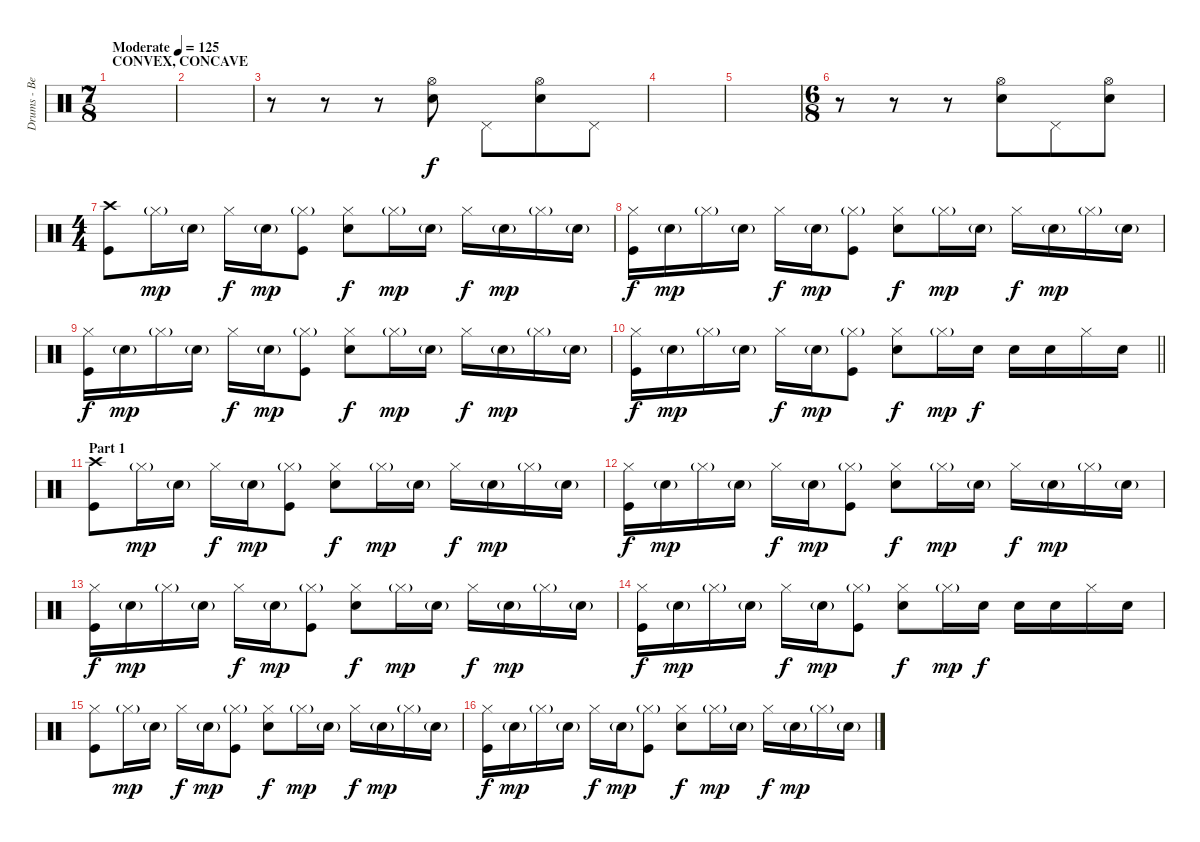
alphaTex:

\track ("Drums - Ben Johnston" "Drums - Be") {instrument percussion}
\staff {score}
\articulation defaults
\ts (7 8)
\section ("" "CONVEX, CONCAVE")
\tempo (125 "Moderate")
\clef neutral
\ks c
|
|
r.8 r.8 r.8 ("Hi-Hat (open)" "Snare (hit) 2").8 "Pedal Hi-Hat (hit)".8 ("Hi-Hat (open)" "Snare (hit) 2").8 "Pedal Hi-Hat (hit)".8 |
|
|
\ts (6 8)
r.8 r.8 r.8 ("Hi-Hat (open)" "Snare (hit) 2").8 "Pedal Hi-Hat (hit)".8 ("Hi-Hat (open)" "Snare (hit) 2").8 |
\ts (4 4)
("Crash high (hit)" "Kick (hit)").8 "Hi-Hat (closed)"{g}.16{dy mp} "Snare (hit) 2"{g}.16 "Hi-Hat (closed)".16{dy f} "Snare (hit) 2"{g}.16{dy mp} ("Hi-Hat (closed)"{g} "Kick (hit)").8 ("Hi-Hat (closed)" "Snare (hit) 2").8{dy f} "Hi-Hat (closed)"{g}.16{dy mp} "Snare (hit) 2"{g}.16 "Hi-Hat (closed)".16{dy f} "Snare (hit) 2"{g}.16{dy mp} "Hi-Hat (closed)"{g}.16 "Snare (hit) 2"{g}.16 |
("Hi-Hat (closed)" "Kick (hit)").16{dy f} "Snare (hit) 2"{g}.16{dy mp} "Hi-Hat (closed)"{g}.16 "Snare (hit) 2"{g}.16 "Hi-Hat (closed)".16{dy f} "Snare (hit) 2"{g}.16{dy mp} ("Hi-Hat (closed)"{g} "Kick (hit)").8 ("Hi-Hat (closed)" "Snare (hit) 2").8{dy f} "Hi-Hat (closed)"{g}.16{dy mp} "Snare (hit) 2"{g}.16 "Hi-Hat (closed)".16{dy f} "Snare (hit) 2"{g}.16{dy mp} "Hi-Hat (closed)"{g}.16 "Snare (hit) 2"{g}.16 |
("Hi-Hat (closed)" "Kick (hit)").16{dy f} "Snare (hit) 2"{g}.16{dy mp} "Hi-Hat (closed)"{g}.16 "Snare (hit) 2"{g}.16 "Hi-Hat (closed)".16{dy f} "Snare (hit) 2"{g}.16{dy mp} ("Hi-Hat (closed)"{g} "Kick (hit)").8 ("Hi-Hat (closed)" "Snare (hit) 2").8{dy f} "Hi-Hat (closed)"{g}.16{dy mp} "Snare (hit) 2"{g}.16 "Hi-Hat (closed)".16{dy f} "Snare (hit) 2"{g}.16{dy mp} "Hi-Hat (closed)"{g}.16 "Snare (hit) 2"{g}.16 |
\barLineRight lightlight
("Hi-Hat (closed)" "Kick (hit)").16{dy f} "Snare (hit) 2"{g}.16{dy mp} "Hi-Hat (closed)"{g}.16 "Snare (hit) 2"{g}.16 "Hi-Hat (closed)".16{dy f} "Snare (hit) 2"{g}.16{dy mp} ("Hi-Hat (closed)"{g} "Kick (hit)").8 ("Hi-Hat (closed)" "Snare (hit) 2").8{dy f} "Hi-Hat (closed)"{g}.16{dy mp} "Snare (hit) 2".16{dy f} "Snare (hit) 2".16 "Snare (hit) 2".16 "Hi-Hat (closed)".16 "Snare (hit) 2".16 |
\section ("" "Part 1")
("Crash high (hit)" "Kick (hit)").8 "Hi-Hat (closed)"{g}.16{dy mp} "Snare (hit) 2"{g}.16 "Hi-Hat (closed)".16{dy f} "Snare (hit) 2"{g}.16{dy mp} ("Hi-Hat (closed)"{g} "Kick (hit)").8 ("Hi-Hat (closed)" "Snare (hit) 2").8{dy f} "Hi-Hat (closed)"{g}.16{dy mp} "Snare (hit) 2"{g}.16 "Hi-Hat (closed)".16{dy f} "Snare (hit) 2"{g}.16{dy mp} "Hi-Hat (closed)"{g}.16 "Snare (hit) 2"{g}.16 |
("Hi-Hat (closed)" "Kick (hit)").16{dy f} "Snare (hit) 2"{g}.16{dy mp} "Hi-Hat (closed)"{g}.16 "Snare (hit) 2"{g}.16 "Hi-Hat (closed)".16{dy f} "Snare (hit) 2"{g}.16{dy mp} ("Hi-Hat (closed)"{g} "Kick (hit)").8 ("Hi-Hat (closed)" "Snare (hit) 2").8{dy f} "Hi-Hat (closed)"{g}.16{dy mp} "Snare (hit) 2"{g}.16 "Hi-Hat (closed)".16{dy f} "Snare (hit) 2"{g}.16{dy mp} "Hi-Hat (closed)"{g}.16 "Snare (hit) 2"{g}.16 |
("Hi-Hat (closed)" "Kick (hit)").16{dy f} "Snare (hit) 2"{g}.16{dy mp} "Hi-Hat (closed)"{g}.16 "Snare (hit) 2"{g}.16 "Hi-Hat (closed)".16{dy f} "Snare (hit) 2"{g}.16{dy mp} ("Hi-Hat (closed)"{g} "Kick (hit)").8 ("Hi-Hat (closed)" "Snare (hit) 2").8{dy f} "Hi-Hat (closed)"{g}.16{dy mp} "Snare (hit) 2"{g}.16 "Hi-Hat (closed)".16{dy f} "Snare (hit) 2"{g}.16{dy mp} "Hi-Hat (closed)"{g}.16 "Snare (hit) 2"{g}.16 |
("Hi-Hat (closed)" "Kick (hit)").16{dy f} "Snare (hit) 2"{g}.16{dy mp} "Hi-Hat (closed)"{g}.16 "Snare (hit) 2"{g}.16 "Hi-Hat (closed)".16{dy f} "Snare (hit) 2"{g}.16{dy mp} ("Hi-Hat (closed)"{g} "Kick (hit)").8 ("Hi-Hat (closed)" "Snare (hit) 2").8{dy f} "Hi-Hat (closed)"{g}.16{dy mp} "Snare (hit) 2".16{dy f} "Snare (hit) 2".16 "Snare (hit) 2".16 "Hi-Hat (closed)".16 "Snare (hit) 2".16 |
("Hi-Hat (closed)" "Kick (hit)").8 "Hi-Hat (closed)"{g}.16{dy mp} "Snare (hit) 2"{g}.16 "Hi-Hat (closed)".16{dy f} "Snare (hit) 2"{g}.16{dy mp} ("Hi-Hat (closed)"{g} "Kick (hit)").8 ("Hi-Hat (closed)" "Snare (hit) 2").8{dy f} "Hi-Hat (closed)"{g}.16{dy mp} "Snare (hit) 2"{g}.16 "Hi-Hat (closed)".16{dy f} "Snare (hit) 2"{g}.16{dy mp} "Hi-Hat (closed)"{g}.16 "Snare (hit) 2"{g}.16 |
("Hi-Hat (closed)" "Kick (hit)").16{dy f} "Snare (hit) 2"{g}.16{dy mp} "Hi-Hat (closed)"{g}.16 "Snare (hit) 2"{g}.16 "Hi-Hat (closed)".16{dy f} "Snare (hit) 2"{g}.16{dy mp} ("Hi-Hat (closed)"{g} "Kick (hit)").8 ("Hi-Hat (closed)" "Snare (hit) 2").8{dy f} "Hi-Hat (closed)"{g}.16{dy mp} "Snare (hit) 2"{g}.16 "Hi-Hat (closed)".16{dy f} "Snare (hit) 2"{g}.16{dy mp} "Hi-Hat (closed)"{g}.16 "Snare (hit) 2"{g}.16
